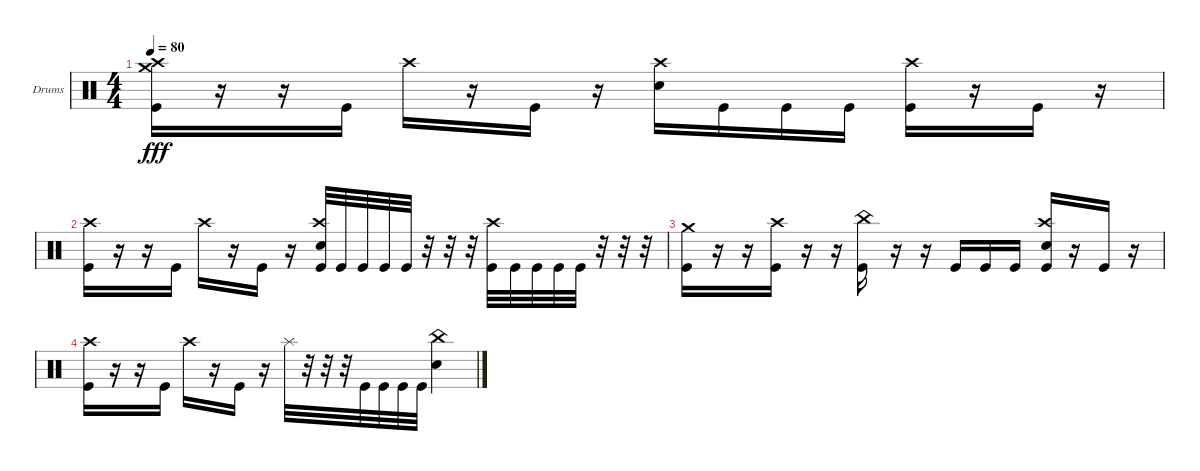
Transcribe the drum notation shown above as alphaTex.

\bracketExtendMode groupsimilarinstruments
\firstSystemTrackNameOrientation horizontal
\otherSystemsTrackNameOrientation horizontal
\track ("Drumkit" "Drums") {instrument percussion}
\staff {score}
\articulation defaults
\ts (4 4)
\tempo 80
\clef neutral
\ks c
("Kick (hit)" "Crash high (hit)" "Crash medium (hit)").16{dy fff} r.16 r.16 "Kick (hit)".16 "Crash high (hit)".16 r.16 "Kick (hit)".16 r.16 ("Snare (hit) 2" "Crash high (hit)").16 "Kick (hit)".16 "Kick (hit)".16 "Kick (hit)".16 ("Kick (hit)" "Crash high (hit)").16 r.16 "Kick (hit)".16 r.16 |
("Kick (hit)" "Crash high (hit)").16 r.16 r.16 "Kick (hit)".16 "Crash high (hit)".16 r.16 "Kick (hit)".16 r.16 ("Kick (hit)" "Snare (hit) 2" "Crash high (hit)").32 "Kick (hit)".32 "Kick (hit)".32 "Kick (hit)".32 "Kick (hit)".32 r.32 r.32 r.32 ("Kick (hit)" "Crash high (hit)").32 "Kick (hit)".32 "Kick (hit)".32 "Kick (hit)".32 "Kick (hit)".32 r.32 r.32 r.32 |
("Kick (hit)" "Crash medium (hit)").16 r.16 r.16 ("Kick (hit)" "Crash high (hit)").16 r.16 r.16 ("Kick (hit)" "China (hit)").16 r.16 r.16 "Kick (hit)".16 "Kick (hit)".16 "Kick (hit)".16 ("Kick (hit)" "Snare (hit) 2" "Crash high (hit)").16 r.16 "Kick (hit)".16 r.16 |
("Kick (hit)" "Crash high (hit)").16 r.16 r.16 "Kick (hit)".16 "Crash high (hit)".16 r.16 "Kick (hit)".16 r.16 "Splash (hit)".32 r.32 r.32 r.32 "Kick (hit)".32 "Kick (hit)".32 "Kick (hit)".32 "Kick (hit)".32 ("Snare (hit) 2" "China (hit)").4
